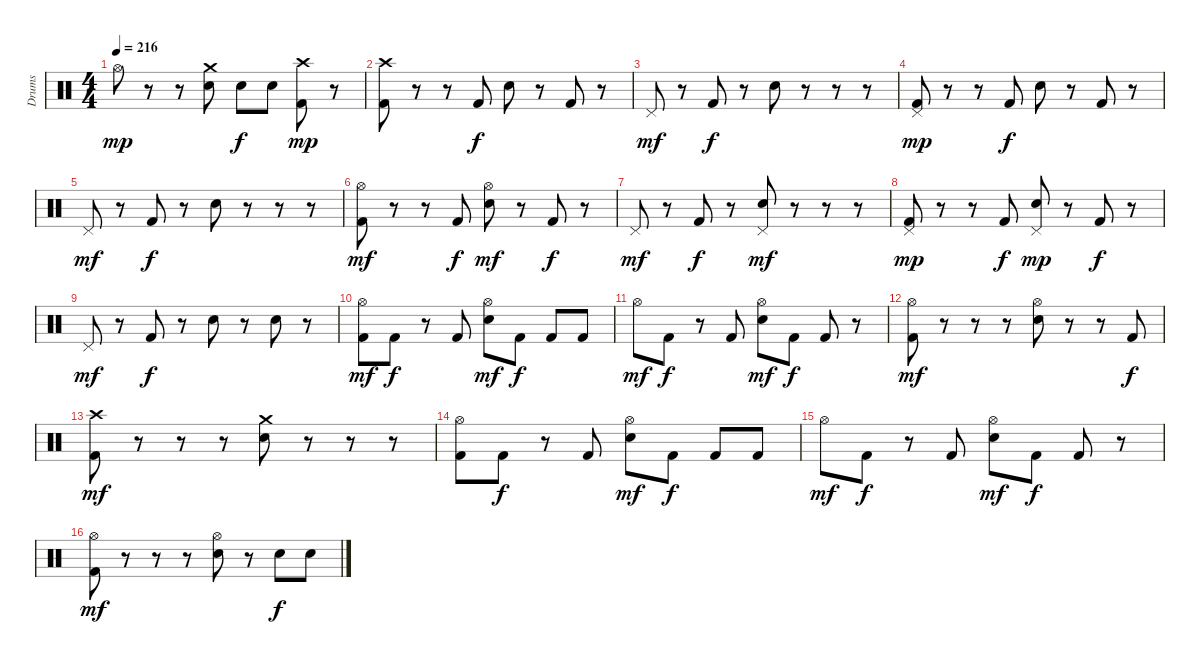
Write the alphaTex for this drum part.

\track ("Drums" "Drums") {instrument percussion}
\staff {score}
\articulation defaults
\ts (4 4)
\tempo 216
\clef neutral
\ks c "Hi-Hat (open)".8{dy mp}
r.8 r.8 ("Snare (hit) 2" "Crash medium (hit)").8 "Snare (hit) 2".8{dy f} "Snare (hit) 2".8 ("Kick (hit) 2" "Crash high (hit)").8{dy mp} r.8 |
("Kick (hit) 2" "Crash high (hit)").8 r.8 r.8 "Kick (hit) 2".8{dy f} "Snare (hit) 2".8 r.8 "Kick (hit) 2".8 r.8 |
"Pedal Hi-Hat (hit)".8{dy mf} r.8 "Kick (hit) 2".8{dy f} r.8 "Snare (hit) 2".8 r.8 r.8 r.8 |
("Kick (hit) 2" "Pedal Hi-Hat (hit)").8{dy mp} r.8 r.8 "Kick (hit) 2".8{dy f} "Snare (hit) 2".8 r.8 "Kick (hit) 2".8 r.8 |
"Pedal Hi-Hat (hit)".8{dy mf} r.8 "Kick (hit) 2".8{dy f} r.8 "Snare (hit) 2".8 r.8 r.8 r.8 |
("Kick (hit) 2" "Hi-Hat (open)").8{dy mf} r.8 r.8 "Kick (hit) 2".8{dy f} ("Snare (hit) 2" "Hi-Hat (open)").8{dy mf} r.8 "Kick (hit) 2".8{dy f} r.8 |
"Pedal Hi-Hat (hit)".8{dy mf} r.8 "Kick (hit) 2".8{dy f} r.8 ("Snare (hit) 2" "Pedal Hi-Hat (hit)").8{dy mf} r.8 r.8 r.8 |
("Kick (hit) 2" "Pedal Hi-Hat (hit)").8{dy mp} r.8 r.8 "Kick (hit) 2".8{dy f} ("Snare (hit) 2" "Pedal Hi-Hat (hit)").8{dy mp} r.8 "Kick (hit) 2".8{dy f} r.8 |
"Pedal Hi-Hat (hit)".8{dy mf} r.8 "Kick (hit) 2".8{dy f} r.8 "Snare (hit) 2".8 r.8 "Snare (hit) 2".8 r.8 |
("Kick (hit) 2" "Hi-Hat (open)").8{dy mf} "Kick (hit) 2".8{dy f} r.8 "Kick (hit) 2".8 ("Snare (hit) 2" "Hi-Hat (open)").8{dy mf} "Kick (hit) 2".8{dy f} "Kick (hit) 2".8 "Kick (hit) 2".8 |
"Hi-Hat (open)".8{dy mf} "Kick (hit) 2".8{dy f} r.8 "Kick (hit) 2".8 ("Snare (hit) 2" "Hi-Hat (open)").8{dy mf} "Kick (hit) 2".8{dy f} "Kick (hit) 2".8 r.8 |
("Kick (hit) 2" "Hi-Hat (open)").8{dy mf} r.8 r.8 r.8 ("Snare (hit) 2" "Hi-Hat (open)").8 r.8 r.8 "Kick (hit) 2".8{dy f} |
("Kick (hit) 2" "Crash high (hit)").8{dy mf} r.8 r.8 r.8 ("Snare (hit) 2" "Crash medium (hit)").8 r.8 r.8 r.8 |
("Kick (hit) 2" "Hi-Hat (open)").8 "Kick (hit) 2".8{dy f} r.8 "Kick (hit) 2".8 ("Snare (hit) 2" "Hi-Hat (open)").8{dy mf} "Kick (hit) 2".8{dy f} "Kick (hit) 2".8 "Kick (hit) 2".8 |
"Hi-Hat (open)".8{dy mf} "Kick (hit) 2".8{dy f} r.8 "Kick (hit) 2".8 ("Snare (hit) 2" "Hi-Hat (open)").8{dy mf} "Kick (hit) 2".8{dy f} "Kick (hit) 2".8 r.8 |
("Kick (hit) 2" "Hi-Hat (open)").8{dy mf} r.8 r.8 r.8 ("Snare (hit) 2" "Hi-Hat (open)").8 r.8 "Snare (hit) 2".8{dy f} "Snare (hit) 2".8
